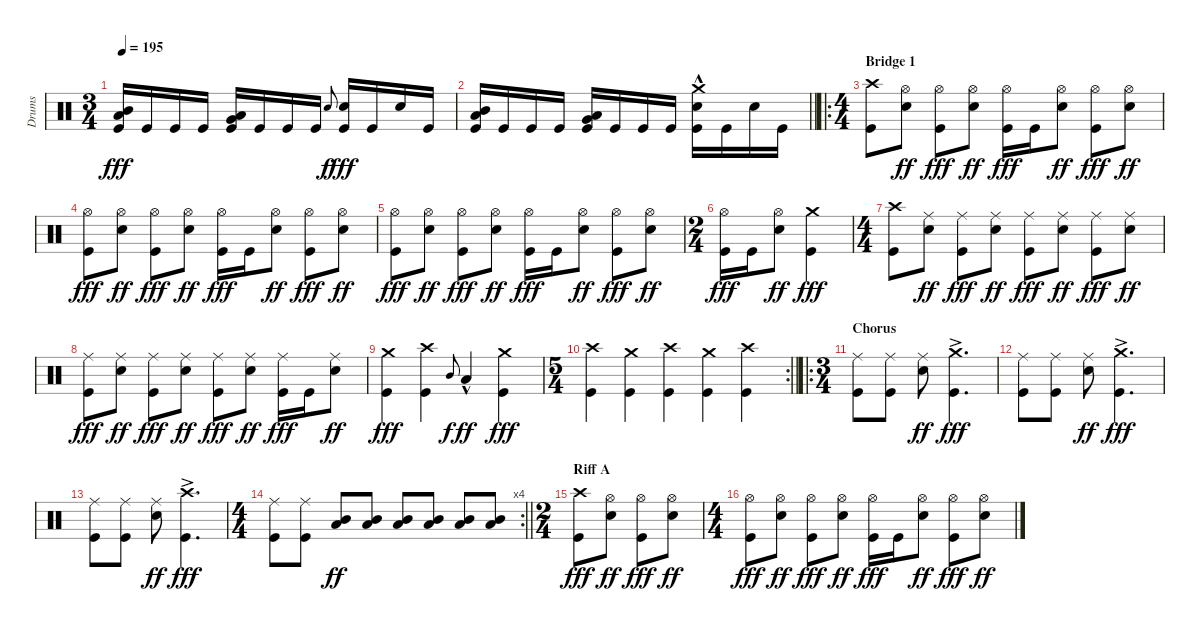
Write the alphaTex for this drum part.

\track ("Drums" "Drums") {instrument percussion}
\staff {score}
\articulation defaults
\ts (3 4)
\tempo 195
\clef neutral
\ks c
("Mid Tom (hit)" "Low Tom (hit)" "Kick (hit)").16{dy fff} "Kick (hit)".16 "Kick (hit)".16 "Kick (hit)".16 ("Low Tom (hit)" "Very Low Tom (hit)" "Kick (hit)").16 "Kick (hit)".16 "Kick (hit)".16 "Kick (hit)".16 "Electric Snare (hit)".8{gr onbeat dy f} ("Electric Snare (hit)" "Kick (hit)").16{dy fff} "Kick (hit)".16 "Snare (hit)".16 "Kick (hit)".16 |
\barLineRight lightlight
("Mid Tom (hit)" "Low Tom (hit)" "Kick (hit)").16 "Kick (hit)".16 "Kick (hit)".16 "Kick (hit)".16 ("Low Tom (hit)" "Very Low Tom (hit)" "Kick (hit)").16 "Kick (hit)".16 "Kick (hit)".16 "Kick (hit)".16 ("Crash medium (hit)"{hac} "Electric Snare (hit)" "Kick (hit)").16 "Kick (hit)".16 "Snare (hit)".16 "Kick (hit)".16 |
\ro
\ts (4 4)
\section ("" "Bridge 1")
("Crash high (hit)" "Kick (hit)").8 ("Hi-Hat (open)" "Electric Snare (hit)").8{dy ff} ("Hi-Hat (open)" "Kick (hit)").8{dy fff} ("Hi-Hat (open)" "Electric Snare (hit)").8{dy ff} ("Hi-Hat (open)" "Kick (hit)").16{dy fff} "Kick (hit)".16 ("Hi-Hat (open)" "Electric Snare (hit)").8{dy ff} ("Hi-Hat (open)" "Kick (hit)").8{dy fff} ("Hi-Hat (open)" "Electric Snare (hit)").8{dy ff} |
("Hi-Hat (open)" "Kick (hit)").8{dy fff} ("Hi-Hat (open)" "Electric Snare (hit)").8{dy ff} ("Hi-Hat (open)" "Kick (hit)").8{dy fff} ("Hi-Hat (open)" "Electric Snare (hit)").8{dy ff} ("Hi-Hat (open)" "Kick (hit)").16{dy fff} "Kick (hit)".16 ("Hi-Hat (open)" "Electric Snare (hit)").8{dy ff} ("Hi-Hat (open)" "Kick (hit)").8{dy fff} ("Hi-Hat (open)" "Electric Snare (hit)").8{dy ff} |
("Hi-Hat (open)" "Kick (hit)").8{dy fff} ("Hi-Hat (open)" "Electric Snare (hit)").8{dy ff} ("Hi-Hat (open)" "Kick (hit)").8{dy fff} ("Hi-Hat (open)" "Electric Snare (hit)").8{dy ff} ("Hi-Hat (open)" "Kick (hit)").16{dy fff} "Kick (hit)".16 ("Hi-Hat (open)" "Electric Snare (hit)").8{dy ff} ("Hi-Hat (open)" "Kick (hit)").8{dy fff} ("Hi-Hat (open)" "Electric Snare (hit)").8{dy ff} |
\ts (2 4)
("Hi-Hat (open)" "Kick (hit)").16{dy fff} "Kick (hit)".16 ("Hi-Hat (open)" "Electric Snare (hit)").8{dy ff} ("Crash medium (hit)" "Kick (hit)").4{dy fff} |
\ts (4 4)
("Crash high (hit)" "Kick (hit)").8 ("Ride (middle)" "Electric Snare (hit)").8{dy ff} ("Ride (middle)" "Kick (hit)").8{dy fff} ("Ride (middle)" "Electric Snare (hit)").8{dy ff} ("Ride (middle)" "Kick (hit)").8{dy fff} ("Ride (middle)" "Electric Snare (hit)").8{dy ff} ("Ride (middle)" "Kick (hit)").8{dy fff} ("Ride (middle)" "Electric Snare (hit)").8{dy ff} |
("Ride (middle)" "Kick (hit)").8{dy fff} ("Ride (middle)" "Electric Snare (hit)").8{dy ff} ("Ride (middle)" "Kick (hit)").8{dy fff} ("Ride (middle)" "Electric Snare (hit)").8{dy ff} ("Ride (middle)" "Kick (hit)").8{dy fff} ("Ride (middle)" "Electric Snare (hit)").8{dy ff} ("Ride (middle)" "Kick (hit)").16{dy fff} "Kick (hit)".16 ("Ride (middle)" "Electric Snare (hit)").8{dy ff} |
("Crash medium (hit)" "Kick (hit)").4{dy fff} ("Crash high (hit)" "Kick (hit)").4 "Mid Tom (hit)".8{gr onbeat dy f} "Low Tom (hit)"{hac}.4{dy ff} ("Crash medium (hit)" "Kick (hit)").4{dy fff} |
\rc 2
\ts (5 4)
\barLineRight lightlight
("Crash high (hit)" "Kick (hit)").4 ("Crash medium (hit)" "Kick (hit)").4 ("Crash high (hit)" "Kick (hit)").4 ("Crash medium (hit)" "Kick (hit)").4 ("Crash high (hit)" "Kick (hit)").4 |
\ro
\ts (3 4)
\section ("" "Chorus")
("Ride (middle)" "Kick (hit)").8 ("Ride (middle)" "Kick (hit)").8 ("Ride (middle)" "Electric Snare (hit)").8{dy ff} ("Crash medium (hit)"{ac} "Kick (hit)").4{d dy fff} |
("Ride (middle)" "Kick (hit)").8 ("Ride (middle)" "Kick (hit)").8 ("Ride (middle)" "Electric Snare (hit)").8{dy ff} ("Crash medium (hit)"{ac} "Kick (hit)").4{d dy fff} |
("Ride (middle)" "Kick (hit)").8 ("Ride (middle)" "Kick (hit)").8 ("Ride (middle)" "Electric Snare (hit)").8{dy ff} ("Crash high (hit)"{ac} "Kick (hit)").4{d dy fff} |
\rc 4
\ts (4 4)
\barLineRight lightlight
("Ride (middle)" "Kick (hit)").8 ("Ride (middle)" "Kick (hit)").8 ("Mid Tom (hit)" "Low Tom (hit)").8{dy ff} ("Mid Tom (hit)" "Low Tom (hit)").8 ("Mid Tom (hit)" "Low Tom (hit)").8 ("Mid Tom (hit)" "Low Tom (hit)").8 ("Mid Tom (hit)" "Low Tom (hit)").8 ("Mid Tom (hit)" "Low Tom (hit)").8 |
\ts (2 4)
\section ("" "Riff A")
("Crash high (hit)" "Kick (hit)").8{dy fff} ("Hi-Hat (open)" "Electric Snare (hit)").8{dy ff} ("Hi-Hat (open)" "Kick (hit)").8{dy fff} ("Hi-Hat (open)" "Electric Snare (hit)").8{dy ff} |
\ts (4 4)
("Hi-Hat (open)" "Kick (hit)").8{dy fff} ("Hi-Hat (open)" "Electric Snare (hit)").8{dy ff} ("Hi-Hat (open)" "Kick (hit)").8{dy fff} ("Hi-Hat (open)" "Electric Snare (hit)").8{dy ff} ("Hi-Hat (open)" "Kick (hit)").16{dy fff} "Kick (hit)".16 ("Hi-Hat (open)" "Electric Snare (hit)").8{dy ff} ("Hi-Hat (open)" "Kick (hit)").8{dy fff} ("Hi-Hat (open)" "Electric Snare (hit)").8{dy ff}
